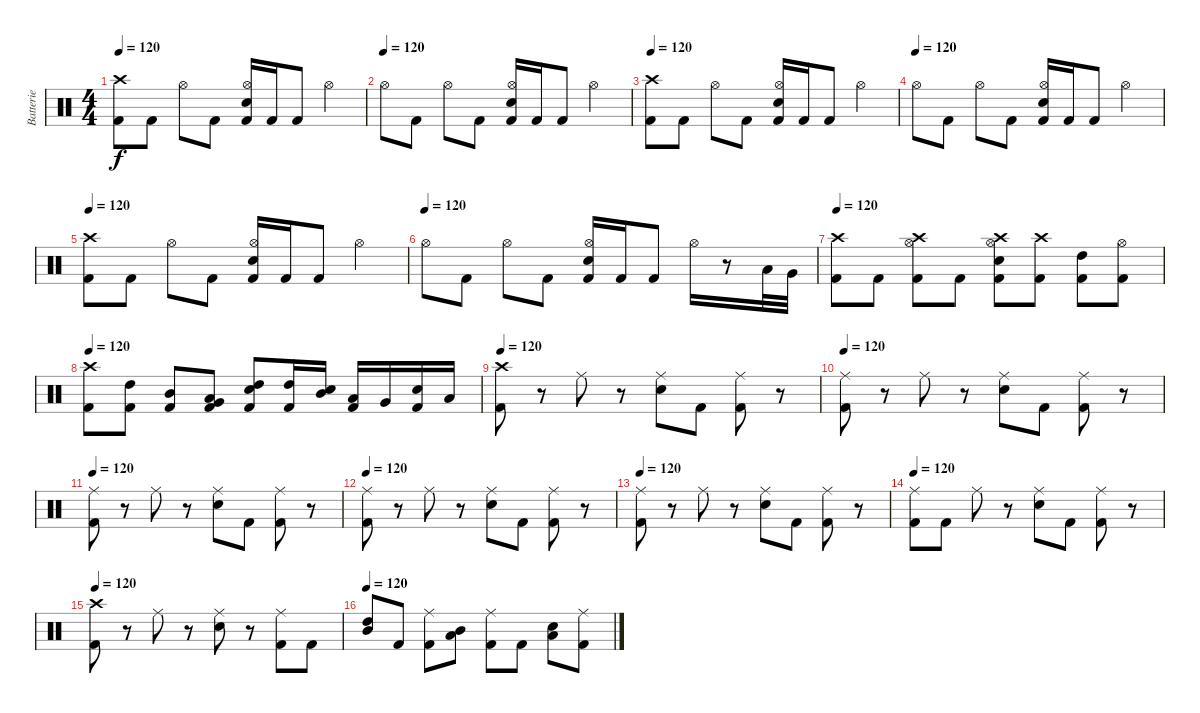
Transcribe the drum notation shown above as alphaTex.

\track ("Batterie" "Batterie") {instrument percussion}
\staff {score}
\articulation defaults
\ts (4 4)
\tempo 120
\clef neutral
\ks c
("Crash high (hit)" "Kick (hit) 2").8{dy f} "Kick (hit) 2".8 "Hi-Hat (open)".8 "Kick (hit) 2".8 ("Hi-Hat (open)" "Electric Snare (hit)" "Kick (hit) 2").16 "Kick (hit) 2".16 "Kick (hit) 2".8 "Hi-Hat (open)".4 |
\tempo (120)
"Hi-Hat (open)".8 "Kick (hit) 2".8 "Hi-Hat (open)".8 "Kick (hit) 2".8 ("Hi-Hat (open)" "Electric Snare (hit)" "Kick (hit) 2").16 "Kick (hit) 2".16 "Kick (hit) 2".8 "Hi-Hat (open)".4 |
\tempo 120
("Crash high (hit)" "Kick (hit) 2").8 "Kick (hit) 2".8 "Hi-Hat (open)".8 "Kick (hit) 2".8 ("Hi-Hat (open)" "Electric Snare (hit)" "Kick (hit) 2").16 "Kick (hit) 2".16 "Kick (hit) 2".8 "Hi-Hat (open)".4 |
\tempo (120)
"Hi-Hat (open)".8 "Kick (hit) 2".8 "Hi-Hat (open)".8 "Kick (hit) 2".8 ("Hi-Hat (open)" "Electric Snare (hit)" "Kick (hit) 2").16 "Kick (hit) 2".16 "Kick (hit) 2".8 "Hi-Hat (open)".4 |
\tempo 120
("Crash high (hit)" "Kick (hit) 2").8 "Kick (hit) 2".8 "Hi-Hat (open)".8 "Kick (hit) 2".8 ("Hi-Hat (open)" "Electric Snare (hit)" "Kick (hit) 2").16 "Kick (hit) 2".16 "Kick (hit) 2".8 "Hi-Hat (open)".4 |
\tempo (120)
"Hi-Hat (open)".8 "Kick (hit) 2".8 "Hi-Hat (open)".8 "Kick (hit) 2".8 ("Hi-Hat (open)" "Electric Snare (hit)" "Kick (hit) 2").16 "Kick (hit) 2".16 "Kick (hit) 2".8 "Hi-Hat (open)".16 r.8 "Low Tom (hit)".32 "Very Low Tom (hit)".32 |
\tempo 120
("Crash high (hit)" "Kick (hit) 2").8 "Kick (hit) 2".8 ("Crash high (hit)" "Hi-Hat (open)" "Kick (hit) 2").8 "Kick (hit) 2".8 ("Crash high (hit)" "Hi-Hat (open)" "Electric Snare (hit)" "Kick (hit) 2").8 ("Crash high (hit)" "Kick (hit) 2").8 ("High Tom (hit)" "Kick (hit) 2").8 ("Hi-Hat (open)" "Kick (hit) 2").8 |
\tempo 120
("Crash high (hit)" "Kick (hit) 2").8 ("High Tom (hit)" "Kick (hit) 2").8 ("Mid Tom (hit)" "Kick (hit) 2").8 ("Very Low Tom (hit)" "Low Tom (hit)" "Kick (hit) 2").8 ("High Tom (hit)" "Electric Snare (hit)" "Kick (hit) 2").8 ("High Tom (hit)" "Kick (hit) 2").16 ("Mid Tom (hit)" "Electric Snare (hit)").16 ("Low Tom (hit)" "Kick (hit) 2").16 "Very Low Tom (hit)".16 ("Electric Snare (hit)" "Kick (hit) 2").16 "Low Floor Tom (hit)".16 |
\tempo 120
("Crash high (hit)" "Kick (hit) 2").8 r.8 "Ride (middle)".8 r.8 ("Ride (middle)" "Electric Snare (hit)").8 "Kick (hit) 2".8 ("Ride (middle)" "Kick (hit) 2").8 r.8 |
\tempo 120
("Ride (middle)" "Kick (hit) 2").8 r.8 "Ride (middle)".8 r.8 ("Ride (middle)" "Electric Snare (hit)").8 "Kick (hit) 2".8 ("Ride (middle)" "Kick (hit) 2").8 r.8 |
\tempo 120
("Ride (middle)" "Kick (hit) 2").8 r.8 "Ride (middle)".8 r.8 ("Ride (middle)" "Electric Snare (hit)").8 "Kick (hit) 2".8 ("Ride (middle)" "Kick (hit) 2").8 r.8 |
\tempo 120
("Ride (middle)" "Kick (hit) 2").8 r.8 "Ride (middle)".8 r.8 ("Ride (middle)" "Electric Snare (hit)").8 "Kick (hit) 2".8 ("Ride (middle)" "Kick (hit) 2").8 r.8 |
\tempo 120
("Ride (middle)" "Kick (hit) 2").8 r.8 "Ride (middle)".8 r.8 ("Ride (middle)" "Electric Snare (hit)").8 "Kick (hit) 2".8 ("Ride (middle)" "Kick (hit) 2").8 r.8 |
\tempo 120
("Ride (middle)" "Kick (hit) 2").8 "Kick (hit) 2".8 "Ride (middle)".8 r.8 ("Ride (middle)" "Electric Snare (hit)").8 "Kick (hit) 2".8 ("Ride (middle)" "Kick (hit) 2").8 r.8 |
\tempo 120
("Crash high (hit)" "Kick (hit) 2").8 r.8 "Ride (middle)".8 r.8 ("Ride (middle)" "Electric Snare (hit)").8 r.8 ("Ride (middle)" "Kick (hit) 2").8 "Kick (hit) 2".8 |
\tempo 120
("Mid Tom (hit)" "High Tom (hit)").8 "Kick (hit) 2".8 ("Ride (middle)" "Kick (hit) 2").8 ("Low Tom (hit)" "Mid Tom (hit)").8 ("Ride (middle)" "Kick (hit) 2").8 "Kick (hit) 2".8 ("Low Tom (hit)" "Electric Snare (hit)").8 ("Ride (middle)" "Kick (hit) 2").8
